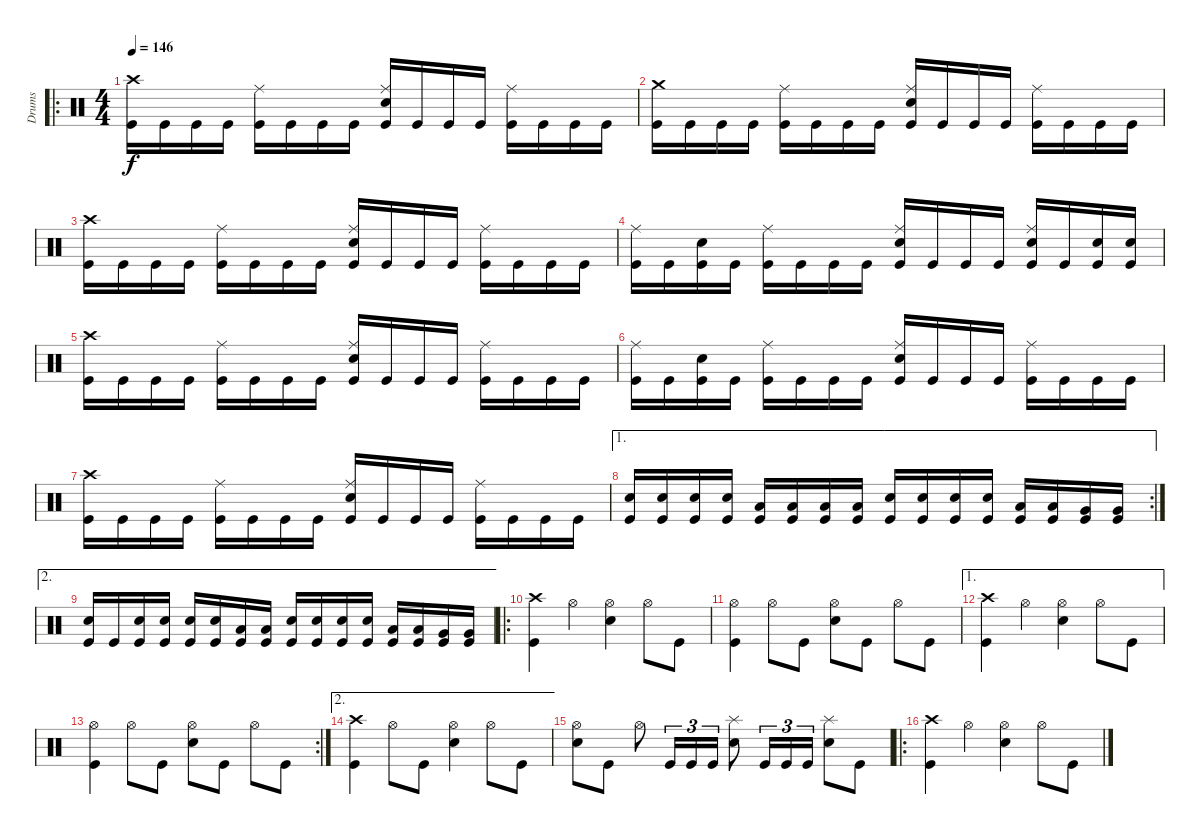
\track ("Drums" "Drums") {instrument percussion}
\staff {score}
\articulation defaults
\ro
\ts (4 4)
\tempo 146
\clef neutral
\ks c
("Crash high (hit)" "Kick (hit)").16{dy f} "Kick (hit)".16 "Kick (hit)".16 "Kick (hit)".16 ("Ride (middle)" "Kick (hit)").16 "Kick (hit)".16 "Kick (hit)".16 "Kick (hit)".16 ("Ride (middle)" "Electric Snare (hit)" "Kick (hit)").16 "Kick (hit)".16 "Kick (hit)".16 "Kick (hit)".16 ("Ride (middle)" "Kick (hit)").16 "Kick (hit)".16 "Kick (hit)".16 "Kick (hit)".16 |
("Crash medium (hit)" "Kick (hit)").16 "Kick (hit)".16 "Kick (hit)".16 "Kick (hit)".16 ("Ride (middle)" "Kick (hit)").16 "Kick (hit)".16 "Kick (hit)".16 "Kick (hit)".16 ("Ride (middle)" "Electric Snare (hit)" "Kick (hit)").16 "Kick (hit)".16 "Kick (hit)".16 "Kick (hit)".16 ("Ride (middle)" "Kick (hit)").16 "Kick (hit)".16 "Kick (hit)".16 "Kick (hit)".16 |
("Crash high (hit)" "Kick (hit)").16 "Kick (hit)".16 "Kick (hit)".16 "Kick (hit)".16 ("Ride (middle)" "Kick (hit)").16 "Kick (hit)".16 "Kick (hit)".16 "Kick (hit)".16 ("Ride (middle)" "Electric Snare (hit)" "Kick (hit)").16 "Kick (hit)".16 "Kick (hit)".16 "Kick (hit)".16 ("Ride (middle)" "Kick (hit)").16 "Kick (hit)".16 "Kick (hit)".16 "Kick (hit)".16 |
("Ride (middle)" "Kick (hit)").16 "Kick (hit)".16 ("Electric Snare (hit)" "Kick (hit)").16 "Kick (hit)".16 ("Ride (middle)" "Kick (hit)").16 "Kick (hit)".16 "Kick (hit)".16 "Kick (hit)".16 ("Ride (middle)" "Electric Snare (hit)" "Kick (hit)").16 "Kick (hit)".16 "Kick (hit)".16 "Kick (hit)".16 ("Ride (middle)" "Electric Snare (hit)" "Kick (hit)").16 "Kick (hit)".16 ("Electric Snare (hit)" "Kick (hit)").16 ("Electric Snare (hit)" "Kick (hit)").16 |
("Crash high (hit)" "Kick (hit)").16 "Kick (hit)".16 "Kick (hit)".16 "Kick (hit)".16 ("Ride (middle)" "Kick (hit)").16 "Kick (hit)".16 "Kick (hit)".16 "Kick (hit)".16 ("Ride (middle)" "Electric Snare (hit)" "Kick (hit)").16 "Kick (hit)".16 "Kick (hit)".16 "Kick (hit)".16 ("Ride (middle)" "Kick (hit)").16 "Kick (hit)".16 "Kick (hit)".16 "Kick (hit)".16 |
("Ride (middle)" "Kick (hit)").16 "Kick (hit)".16 ("Electric Snare (hit)" "Kick (hit)").16 "Kick (hit)".16 ("Ride (middle)" "Kick (hit)").16 "Kick (hit)".16 "Kick (hit)".16 "Kick (hit)".16 ("Ride (middle)" "Electric Snare (hit)" "Kick (hit)").16 "Kick (hit)".16 "Kick (hit)".16 "Kick (hit)".16 ("Ride (middle)" "Kick (hit)").16 "Kick (hit)".16 "Kick (hit)".16 "Kick (hit)".16 |
("Crash high (hit)" "Kick (hit)").16 "Kick (hit)".16 "Kick (hit)".16 "Kick (hit)".16 ("Ride (middle)" "Kick (hit)").16 "Kick (hit)".16 "Kick (hit)".16 "Kick (hit)".16 ("Ride (middle)" "Electric Snare (hit)" "Kick (hit)").16 "Kick (hit)".16 "Kick (hit)".16 "Kick (hit)".16 ("Ride (middle)" "Kick (hit)").16 "Kick (hit)".16 "Kick (hit)".16 "Kick (hit)".16 |
\ae 1
\rc 2
("Electric Snare (hit)" "Kick (hit)").16 ("Electric Snare (hit)" "Kick (hit)").16 ("Electric Snare (hit)" "Kick (hit)").16 ("Electric Snare (hit)" "Kick (hit)").16 ("Low Tom (hit)" "Kick (hit)").16 ("Low Tom (hit)" "Kick (hit)").16 ("Low Tom (hit)" "Kick (hit)").16 ("Low Tom (hit)" "Kick (hit)").16 ("Electric Snare (hit)" "Kick (hit)").16 ("Electric Snare (hit)" "Kick (hit)").16 ("Electric Snare (hit)" "Kick (hit)").16 ("Electric Snare (hit)" "Kick (hit)").16 ("Low Tom (hit)" "Kick (hit)").16 ("Low Tom (hit)" "Kick (hit)").16 ("Very Low Tom (hit)" "Kick (hit)").16 ("Very Low Tom (hit)" "Kick (hit)").16 |
\ae 2
("Electric Snare (hit)" "Kick (hit)").16 "Kick (hit)".16 ("Electric Snare (hit)" "Kick (hit)").16 ("Electric Snare (hit)" "Kick (hit)").16 ("Electric Snare (hit)" "Kick (hit)").16 ("Electric Snare (hit)" "Kick (hit)").16 ("Low Tom (hit)" "Kick (hit)").16 ("Low Tom (hit)" "Kick (hit)").16 ("Electric Snare (hit)" "Kick (hit)").16 ("Electric Snare (hit)" "Kick (hit)").16 ("Electric Snare (hit)" "Kick (hit)").16 ("Electric Snare (hit)" "Kick (hit)").16 ("Low Tom (hit)" "Kick (hit)").16 ("Low Tom (hit)" "Kick (hit)").16 ("Very Low Tom (hit)" "Kick (hit)").16 ("Very Low Tom (hit)" "Kick (hit)").16 |
\ro
("Crash high (hit)" "Kick (hit)").4 "Hi-Hat (open)".4 ("Hi-Hat (open)" "Electric Snare (hit)").4 "Hi-Hat (open)".8 "Kick (hit)".8 |
("Hi-Hat (open)" "Kick (hit)").4 "Hi-Hat (open)".8 "Kick (hit)".8 ("Hi-Hat (open)" "Electric Snare (hit)").8 "Kick (hit)".8 "Hi-Hat (open)".8 "Kick (hit)".8 |
\ae 1
("Crash high (hit)" "Kick (hit)").4 "Hi-Hat (open)".4 ("Hi-Hat (open)" "Electric Snare (hit)").4 "Hi-Hat (open)".8 "Kick (hit)".8 |
\rc 2
("Hi-Hat (open)" "Kick (hit)").4 "Hi-Hat (open)".8 "Kick (hit)".8 ("Hi-Hat (open)" "Electric Snare (hit)").8 "Kick (hit)".8 "Hi-Hat (open)".8 "Kick (hit)".8 |
\ae 2
("Crash high (hit)" "Kick (hit)").4 "Hi-Hat (open)".8 "Kick (hit)".8 ("Hi-Hat (open)" "Electric Snare (hit)").4 "Hi-Hat (open)".8 "Kick (hit)".8 |
("Hi-Hat (open)" "Electric Snare (hit)").8 "Kick (hit)".8 "Hi-Hat (open)".8 "Kick (hit)".16{tu (3 2)} "Kick (hit)".16{tu (3 2)} "Kick (hit)".16{tu (3 2)} ("Splash (hit)" "Electric Snare (hit)").8 "Kick (hit)".16{tu (3 2)} "Kick (hit)".16{tu (3 2)} "Kick (hit)".16{tu (3 2)} ("Splash (hit)" "Electric Snare (hit)").8 "Kick (hit)".8 |
\ro
("Crash high (hit)" "Kick (hit)").4 "Hi-Hat (open)".4 ("Hi-Hat (open)" "Electric Snare (hit)").4 "Hi-Hat (open)".8 "Kick (hit)".8
